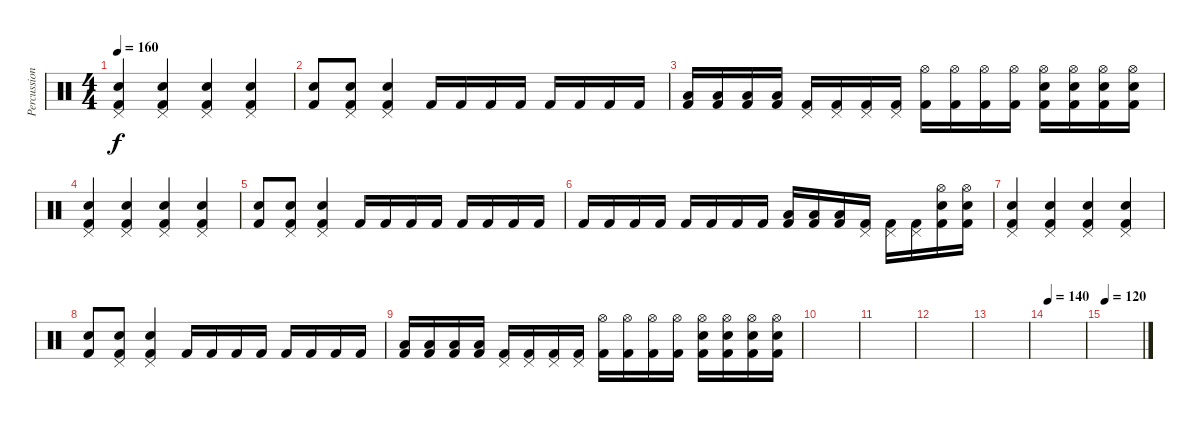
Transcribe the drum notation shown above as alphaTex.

\track ("Percussions" "Percussion") {instrument percussion}
\staff {score}
\articulation defaults
\ts (4 4)
\tempo 160
\clef neutral
\ks c
("Kick (hit) 2" "Snare (hit) 2" "Pedal Hi-Hat (hit)").4{dy f} ("Kick (hit) 2" "Snare (hit) 2" "Pedal Hi-Hat (hit)").4 ("Kick (hit) 2" "Snare (hit) 2" "Pedal Hi-Hat (hit)").4 ("Kick (hit) 2" "Snare (hit) 2" "Pedal Hi-Hat (hit)").4 |
("Kick (hit) 2" "Snare (hit) 2").8 ("Kick (hit) 2" "Snare (hit) 2" "Pedal Hi-Hat (hit)").8 ("Kick (hit) 2" "Snare (hit) 2" "Pedal Hi-Hat (hit)").4 "Kick (hit) 2".16 "Kick (hit) 2".16 "Kick (hit) 2".16 "Kick (hit) 2".16 "Kick (hit) 2".16 "Kick (hit) 2".16 "Kick (hit) 2".16 "Kick (hit) 2".16 |
("Kick (hit) 2" "Low Tom (hit)").16 ("Kick (hit) 2" "Low Tom (hit)").16 ("Kick (hit) 2" "Low Tom (hit)").16 ("Kick (hit) 2" "Low Tom (hit)").16 ("Kick (hit) 2" "Pedal Hi-Hat (hit)").16 ("Kick (hit) 2" "Pedal Hi-Hat (hit)").16 ("Kick (hit) 2" "Pedal Hi-Hat (hit)").16 ("Kick (hit) 2" "Pedal Hi-Hat (hit)").16 ("Kick (hit) 2" "Hi-Hat (open)").16 ("Kick (hit) 2" "Hi-Hat (open)").16 ("Kick (hit) 2" "Hi-Hat (open)").16 ("Kick (hit) 2" "Hi-Hat (open)").16 ("Kick (hit) 2" "Snare (hit) 2" "Hi-Hat (open)").16 ("Kick (hit) 2" "Snare (hit) 2" "Hi-Hat (open)").16 ("Kick (hit) 2" "Snare (hit) 2" "Hi-Hat (open)").16 ("Kick (hit) 2" "Snare (hit) 2" "Hi-Hat (open)").16 |
("Kick (hit) 2" "Snare (hit) 2" "Pedal Hi-Hat (hit)").4 ("Kick (hit) 2" "Snare (hit) 2" "Pedal Hi-Hat (hit)").4 ("Kick (hit) 2" "Snare (hit) 2" "Pedal Hi-Hat (hit)").4 ("Kick (hit) 2" "Snare (hit) 2" "Pedal Hi-Hat (hit)").4 |
("Kick (hit) 2" "Snare (hit) 2").8 ("Kick (hit) 2" "Snare (hit) 2" "Pedal Hi-Hat (hit)").8 ("Kick (hit) 2" "Snare (hit) 2" "Pedal Hi-Hat (hit)").4 "Kick (hit) 2".16 "Kick (hit) 2".16 "Kick (hit) 2".16 "Kick (hit) 2".16 "Kick (hit) 2".16 "Kick (hit) 2".16 "Kick (hit) 2".16 "Kick (hit) 2".16 |
"Kick (hit) 2".16 "Kick (hit) 2".16 "Kick (hit) 2".16 "Kick (hit) 2".16 "Kick (hit) 2".16 "Kick (hit) 2".16 "Kick (hit) 2".16 "Kick (hit) 2".16 ("Kick (hit) 2" "Low Tom (hit)").16 ("Kick (hit) 2" "Low Tom (hit)").16 ("Kick (hit) 2" "Low Tom (hit)").16 ("Kick (hit) 2" "Pedal Hi-Hat (hit)").16 ("Kick (hit) 2" "Pedal Hi-Hat (hit)").16 ("Kick (hit) 2" "Pedal Hi-Hat (hit)").16 ("Kick (hit) 2" "Snare (hit) 2" "Hi-Hat (open)").16 ("Kick (hit) 2" "Snare (hit) 2" "Hi-Hat (open)").16 |
("Kick (hit) 2" "Snare (hit) 2" "Pedal Hi-Hat (hit)").4 ("Kick (hit) 2" "Snare (hit) 2" "Pedal Hi-Hat (hit)").4 ("Kick (hit) 2" "Snare (hit) 2" "Pedal Hi-Hat (hit)").4 ("Kick (hit) 2" "Snare (hit) 2" "Pedal Hi-Hat (hit)").4 |
("Kick (hit) 2" "Snare (hit) 2").8 ("Kick (hit) 2" "Snare (hit) 2" "Pedal Hi-Hat (hit)").8 ("Kick (hit) 2" "Snare (hit) 2" "Pedal Hi-Hat (hit)").4 "Kick (hit) 2".16 "Kick (hit) 2".16 "Kick (hit) 2".16 "Kick (hit) 2".16 "Kick (hit) 2".16 "Kick (hit) 2".16 "Kick (hit) 2".16 "Kick (hit) 2".16 |
("Kick (hit) 2" "Low Tom (hit)").16 ("Kick (hit) 2" "Low Tom (hit)").16 ("Kick (hit) 2" "Low Tom (hit)").16 ("Kick (hit) 2" "Low Tom (hit)").16 ("Kick (hit) 2" "Pedal Hi-Hat (hit)").16 ("Kick (hit) 2" "Pedal Hi-Hat (hit)").16 ("Kick (hit) 2" "Pedal Hi-Hat (hit)").16 ("Kick (hit) 2" "Pedal Hi-Hat (hit)").16 ("Kick (hit) 2" "Hi-Hat (open)").16 ("Kick (hit) 2" "Hi-Hat (open)").16 ("Kick (hit) 2" "Hi-Hat (open)").16 ("Kick (hit) 2" "Hi-Hat (open)").16 ("Kick (hit) 2" "Snare (hit) 2" "Hi-Hat (open)").16 ("Kick (hit) 2" "Snare (hit) 2" "Hi-Hat (open)").16 ("Kick (hit) 2" "Snare (hit) 2" "Hi-Hat (open)").16 ("Kick (hit) 2" "Snare (hit) 2" "Hi-Hat (open)").16 |
|
|
|
|
\tempo 140
|
\tempo 120
